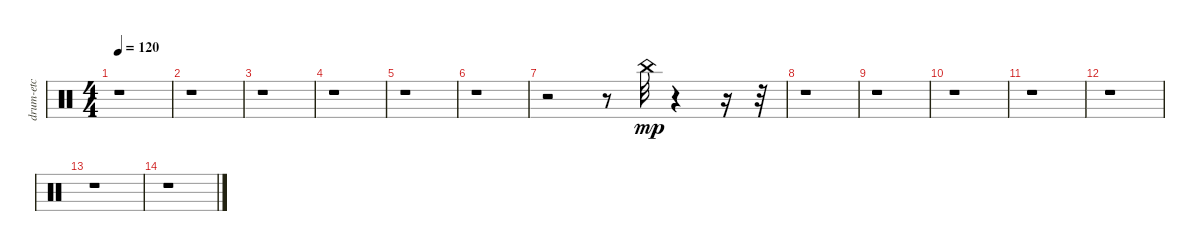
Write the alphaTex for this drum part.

\track ("drum-etc" "drum-etc") {instrument percussion}
\staff {score}
\articulation defaults
\ts (4 4)
\tempo 120
\clef neutral
\ks c
r.1{dy mp} |
r.1 |
r.1 |
r.1 |
r.1 |
r.1 |
r.2 r.8 "China (hit)".32 r.4 r.16 r.32 |
r.1 |
r.1 |
r.1 |
r.1 |
r.1 |
r.1 |
r.1
